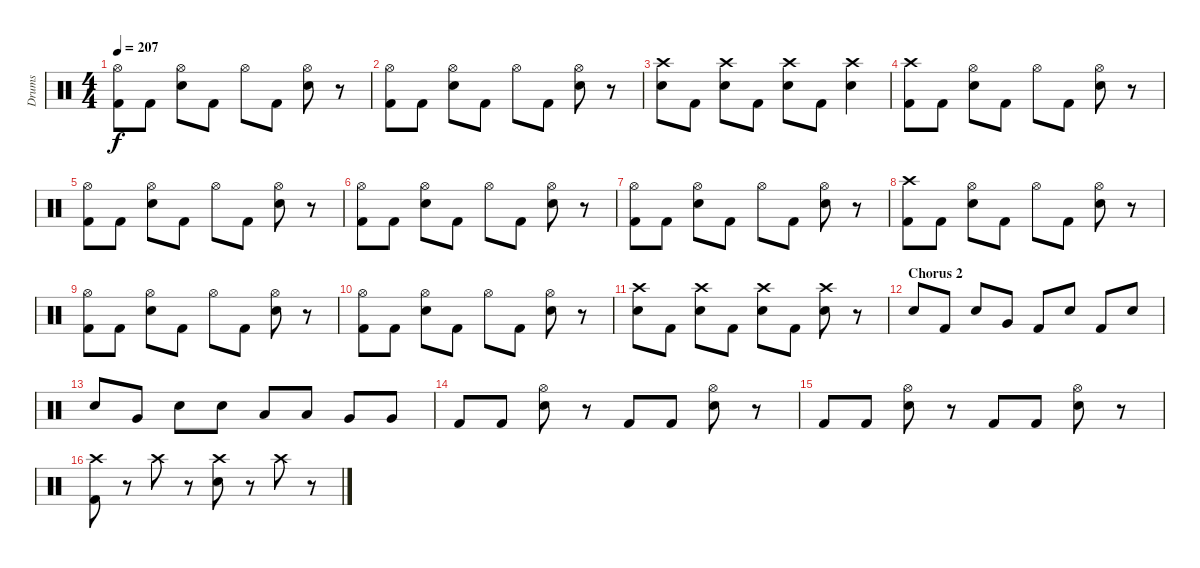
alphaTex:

\track ("Drums" "Drums") {instrument percussion}
\staff {score}
\articulation defaults
\ts (4 4)
\tempo 207
\clef neutral
\ks c
("Hi-Hat (open)" "Kick (hit) 2").8{dy f} "Kick (hit) 2".8 ("Hi-Hat (open)" "Snare (hit) 2").8 "Kick (hit) 2".8 "Hi-Hat (open)".8 "Kick (hit) 2".8 ("Hi-Hat (open)" "Snare (hit) 2").8 r.8 |
("Hi-Hat (open)" "Kick (hit) 2").8 "Kick (hit) 2".8 ("Hi-Hat (open)" "Snare (hit) 2").8 "Kick (hit) 2".8 "Hi-Hat (open)".8 "Kick (hit) 2".8 ("Hi-Hat (open)" "Snare (hit) 2").8 r.8 |
("Crash high (hit)" "Snare (hit) 2").8 "Kick (hit) 2".8 ("Crash high (hit)" "Snare (hit) 2").8 "Kick (hit) 2".8 ("Crash high (hit)" "Snare (hit) 2").8 "Kick (hit) 2".8 ("Crash high (hit)" "Snare (hit) 2").4 |
("Crash high (hit)" "Kick (hit) 2").8 "Kick (hit) 2".8 ("Hi-Hat (open)" "Snare (hit) 2").8 "Kick (hit) 2".8 "Hi-Hat (open)".8 "Kick (hit) 2".8 ("Hi-Hat (open)" "Snare (hit) 2").8 r.8 |
("Hi-Hat (open)" "Kick (hit) 2").8 "Kick (hit) 2".8 ("Hi-Hat (open)" "Snare (hit) 2").8 "Kick (hit) 2".8 "Hi-Hat (open)".8 "Kick (hit) 2".8 ("Hi-Hat (open)" "Snare (hit) 2").8 r.8 |
("Hi-Hat (open)" "Kick (hit) 2").8 "Kick (hit) 2".8 ("Hi-Hat (open)" "Snare (hit) 2").8 "Kick (hit) 2".8 "Hi-Hat (open)".8 "Kick (hit) 2".8 ("Hi-Hat (open)" "Snare (hit) 2").8 r.8 |
("Hi-Hat (open)" "Kick (hit) 2").8 "Kick (hit) 2".8 ("Hi-Hat (open)" "Snare (hit) 2").8 "Kick (hit) 2".8 "Hi-Hat (open)".8 "Kick (hit) 2".8 ("Hi-Hat (open)" "Snare (hit) 2").8 r.8 |
("Crash high (hit)" "Kick (hit) 2").8 "Kick (hit) 2".8 ("Hi-Hat (open)" "Snare (hit) 2").8 "Kick (hit) 2".8 "Hi-Hat (open)".8 "Kick (hit) 2".8 ("Hi-Hat (open)" "Snare (hit) 2").8 r.8 |
("Hi-Hat (open)" "Kick (hit) 2").8 "Kick (hit) 2".8 ("Hi-Hat (open)" "Snare (hit) 2").8 "Kick (hit) 2".8 "Hi-Hat (open)".8 "Kick (hit) 2".8 ("Hi-Hat (open)" "Snare (hit) 2").8 r.8 |
("Hi-Hat (open)" "Kick (hit) 2").8 "Kick (hit) 2".8 ("Hi-Hat (open)" "Snare (hit) 2").8 "Kick (hit) 2".8 "Hi-Hat (open)".8 "Kick (hit) 2".8 ("Hi-Hat (open)" "Snare (hit) 2").8 r.8 |
("Crash high (hit)" "Snare (hit) 2").8 "Kick (hit) 2".8 ("Crash high (hit)" "Snare (hit) 2").8 "Kick (hit) 2".8 ("Crash high (hit)" "Snare (hit) 2").8 "Kick (hit) 2".8 ("Crash high (hit)" "Snare (hit) 2").8 r.8 |
\section ("" "Chorus 2")
"Snare (hit) 2".8 "Kick (hit) 2".8 "Snare (hit) 2".8 "Very Low Tom (hit)".8 "Kick (hit) 2".8 "Snare (hit) 2".8 "Kick (hit) 2".8 "Snare (hit) 2".8 |
"Snare (hit) 2".8 "Very Low Tom (hit)".8 "Snare (hit) 2".8 "Snare (hit) 2".8 "Low Tom (hit)".8 "Low Tom (hit)".8 "Very Low Tom (hit)".8 "Very Low Tom (hit)".8 |
"Kick (hit) 2".8 "Kick (hit) 2".8 ("Hi-Hat (open)" "Snare (hit) 2").8 r.8 "Kick (hit) 2".8 "Kick (hit) 2".8 ("Hi-Hat (open)" "Snare (hit) 2").8 r.8 |
"Kick (hit) 2".8 "Kick (hit) 2".8 ("Hi-Hat (open)" "Snare (hit) 2").8 r.8 "Kick (hit) 2".8 "Kick (hit) 2".8 ("Hi-Hat (open)" "Snare (hit) 2").8 r.8 |
("Crash high (hit)" "Kick (hit) 2").8 r.8 "Crash high (hit)".8 r.8 ("Crash high (hit)" "Snare (hit) 2").8 r.8 "Crash high (hit)".8 r.8
